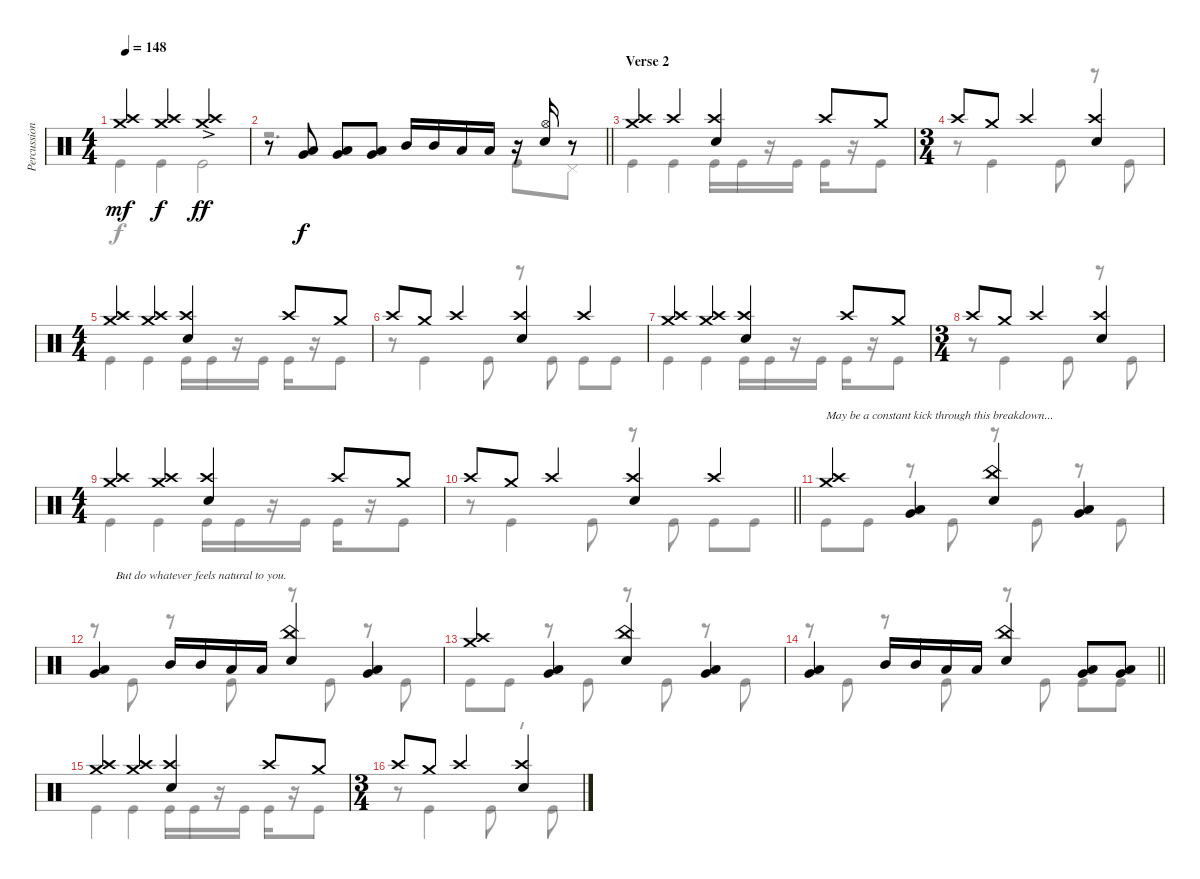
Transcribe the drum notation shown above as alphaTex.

\track ("Percussion" "Percussion") {instrument percussion}
\staff {score}
\articulation defaults
\voice
\ts (4 4)
\section ("" "")
\tempo 148
\clef neutral
\ks c
("Crash medium (hit)" "Crash high (hit)").4{dy mf} ("Crash medium (hit)" "Crash high (hit)").4{dy f} ("Crash medium (hit)"{ac} "Crash high (hit)"{ac}).2{dy ff} |
\barLineRight lightlight
r.8 ("Low Tom (hit)" "Very Low Tom (hit)").8{dy f} ("Low Tom (hit)" "Very Low Tom (hit)").8 ("Low Tom (hit)" "Very Low Tom (hit)").8 "Mid Tom (hit)".16 "Mid Tom (hit)".16 "Low Tom (hit)".16 "Low Tom (hit)".16 r.16 ("Hi-Hat (open)" "Electric Snare (hit)").16 r.8 |
\section ("" "Verse 2")
("Crash medium (hit)" "Crash high (hit)").4 "Crash high (hit)".4 ("Crash high (hit)" "Electric Snare (hit)").4 "Crash high (hit)".8 "Crash medium (hit)".8 |
\ts (3 4)
"Crash high (hit)".8 "Crash medium (hit)".8 "Crash high (hit)".4 ("Crash high (hit)" "Electric Snare (hit)").4 |
\ts (4 4)
("Crash medium (hit)" "Crash high (hit)").4 ("Crash medium (hit)" "Crash high (hit)").4 ("Crash high (hit)" "Electric Snare (hit)").4 "Crash high (hit)".8 "Crash medium (hit)".8 |
"Crash high (hit)".8 "Crash medium (hit)".8 "Crash high (hit)".4 ("Crash high (hit)" "Electric Snare (hit)").4 "Crash high (hit)".4 |
("Crash medium (hit)" "Crash high (hit)").4 ("Crash medium (hit)" "Crash high (hit)").4 ("Crash high (hit)" "Electric Snare (hit)").4 "Crash high (hit)".8 "Crash medium (hit)".8 |
\ts (3 4)
"Crash high (hit)".8 "Crash medium (hit)".8 "Crash high (hit)".4 ("Crash high (hit)" "Electric Snare (hit)").4 |
\ts (4 4)
("Crash medium (hit)" "Crash high (hit)").4 ("Crash medium (hit)" "Crash high (hit)").4 ("Crash high (hit)" "Electric Snare (hit)").4 "Crash high (hit)".8 "Crash medium (hit)".8 |
\barLineRight lightlight "Crash high (hit)".8 "Crash medium (hit)".8 "Crash high (hit)".4
("Crash high (hit)" "Electric Snare (hit)").4 "Crash high (hit)".4 |
\section ("" "")
("Crash medium (hit)" "Crash high (hit)").4{txt "May be a constant kick through this breakdown..."} ("Low Tom (hit)" "Very Low Tom (hit)").4 ("China (hit)" "Electric Snare (hit)").4 ("Low Tom (hit)" "Very Low Tom (hit)").4 |
("Low Tom (hit)" "Very Low Tom (hit)").4{txt "       But do whatever feels natural to you."} "Mid Tom (hit)".16 "Mid Tom (hit)".16 "Low Tom (hit)".16 "Low Tom (hit)".16 ("China (hit)" "Electric Snare (hit)").4 ("Low Tom (hit)" "Very Low Tom (hit)").4 |
("Crash medium (hit)" "Crash high (hit)").4 ("Low Tom (hit)" "Very Low Tom (hit)").4 ("China (hit)" "Electric Snare (hit)").4 ("Low Tom (hit)" "Very Low Tom (hit)").4 |
\barLineRight lightlight
("Low Tom (hit)" "Very Low Tom (hit)").4 "Mid Tom (hit)".16 "Mid Tom (hit)".16 "Low Tom (hit)".16 "Low Tom (hit)".16 ("China (hit)" "Electric Snare (hit)").4 ("Low Tom (hit)" "Very Low Tom (hit)").8 ("Low Tom (hit)" "Very Low Tom (hit)").8 |
\section ("" "")
("Crash medium (hit)" "Crash high (hit)").4 ("Crash medium (hit)" "Crash high (hit)").4 ("Crash high (hit)" "Electric Snare (hit)").4 "Crash high (hit)".8 "Crash medium (hit)".8 |
\ts (3 4)
"Crash high (hit)".8 "Crash medium (hit)".8 "Crash high (hit)".4 ("Crash high (hit)" "Electric Snare (hit)").4
\voice
\clef neutral
\ottava regular
\simile none
\ks c "Kick (hit)".4{dy f} "Kick (hit)".4 "Kick (hit)".2
|
\barLineRight lightlight
r.2{d} "Kick (hit)".8 "Pedal Hi-Hat (hit)".8 |
"Kick (hit)".4 "Kick (hit)".4 "Kick (hit)".16 "Kick (hit)".16 r.16 "Kick (hit)".16 "Kick (hit)".16 r.16 "Kick (hit)".8 |
r.8 "Kick (hit)".4 "Kick (hit)".8 r.8 "Kick (hit)".8 |
"Kick (hit)".4 "Kick (hit)".4 "Kick (hit)".16 "Kick (hit)".16 r.16 "Kick (hit)".16 "Kick (hit)".16 r.16 "Kick (hit)".8 |
r.8 "Kick (hit)".4 "Kick (hit)".8 r.8 "Kick (hit)".8 "Kick (hit)".8 "Kick (hit)".8 |
"Kick (hit)".4 "Kick (hit)".4 "Kick (hit)".16 "Kick (hit)".16 r.16 "Kick (hit)".16 "Kick (hit)".16 r.16 "Kick (hit)".8 |
r.8 "Kick (hit)".4 "Kick (hit)".8 r.8 "Kick (hit)".8 |
"Kick (hit)".4 "Kick (hit)".4 "Kick (hit)".16 "Kick (hit)".16 r.16 "Kick (hit)".16 "Kick (hit)".16 r.16 "Kick (hit)".8 |
\barLineRight lightlight
r.8 "Kick (hit)".4 "Kick (hit)".8 r.8 "Kick (hit)".8 "Kick (hit)".8 "Kick (hit)".8 |
"Kick (hit)".8 "Kick (hit)".8 r.8 "Kick (hit)".8 r.8 "Kick (hit)".8 r.8 "Kick (hit)".8 |
r.8 "Kick (hit)".8 r.8 "Kick (hit)".8 r.8 "Kick (hit)".8 r.8 "Kick (hit)".8 |
"Kick (hit)".8 "Kick (hit)".8 r.8 "Kick (hit)".8 r.8 "Kick (hit)".8 r.8 "Kick (hit)".8 |
\barLineRight lightlight
r.8 "Kick (hit)".8 r.8 "Kick (hit)".8 r.8 "Kick (hit)".8 "Kick (hit)".8 "Kick (hit)".8 |
"Kick (hit)".4 "Kick (hit)".4 "Kick (hit)".16 "Kick (hit)".16 r.16 "Kick (hit)".16 "Kick (hit)".16 r.16 "Kick (hit)".8 |
r.8 "Kick (hit)".4 "Kick (hit)".8 r.8 "Kick (hit)".8
